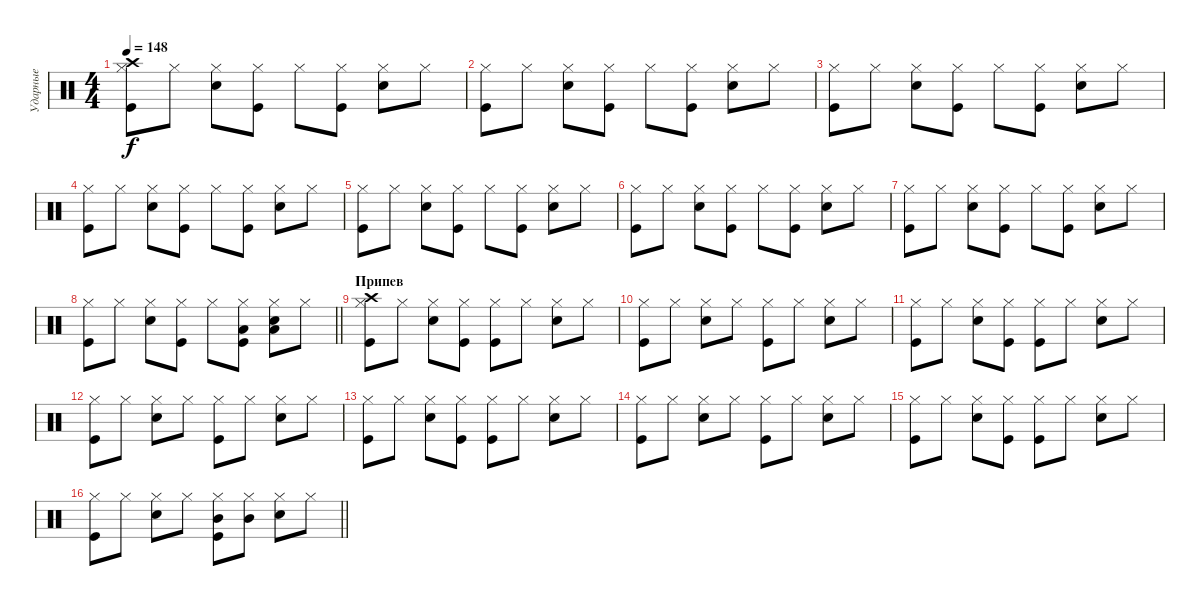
\track ("Ударные" "Ударные") {instrument percussion}
\staff {score}
\articulation defaults
\ts (4 4)
\tempo 148
\clef neutral
\ks c
("Kick (hit)" "Hi-Hat (closed)" "Crash high (hit)").8{dy f} "Hi-Hat (closed)".8 ("Snare (hit) 2" "Hi-Hat (closed)").8 ("Kick (hit)" "Hi-Hat (closed)").8 "Hi-Hat (closed)".8 ("Kick (hit)" "Hi-Hat (closed)").8 ("Snare (hit) 2" "Hi-Hat (closed)").8 "Hi-Hat (closed)".8 |
("Kick (hit)" "Hi-Hat (closed)").8 "Hi-Hat (closed)".8 ("Snare (hit) 2" "Hi-Hat (closed)").8 ("Kick (hit)" "Hi-Hat (closed)").8 "Hi-Hat (closed)".8 ("Kick (hit)" "Hi-Hat (closed)").8 ("Snare (hit) 2" "Hi-Hat (closed)").8 "Hi-Hat (closed)".8 |
("Kick (hit)" "Hi-Hat (closed)").8 "Hi-Hat (closed)".8 ("Snare (hit) 2" "Hi-Hat (closed)").8 ("Kick (hit)" "Hi-Hat (closed)").8 "Hi-Hat (closed)".8 ("Kick (hit)" "Hi-Hat (closed)").8 ("Snare (hit) 2" "Hi-Hat (closed)").8 "Hi-Hat (closed)".8 |
("Kick (hit)" "Hi-Hat (closed)").8 "Hi-Hat (closed)".8 ("Snare (hit) 2" "Hi-Hat (closed)").8 ("Kick (hit)" "Hi-Hat (closed)").8 "Hi-Hat (closed)".8 ("Kick (hit)" "Hi-Hat (closed)").8 ("Snare (hit) 2" "Hi-Hat (closed)").8 "Hi-Hat (closed)".8 |
("Kick (hit)" "Hi-Hat (closed)").8 "Hi-Hat (closed)".8 ("Snare (hit) 2" "Hi-Hat (closed)").8 ("Kick (hit)" "Hi-Hat (closed)").8 "Hi-Hat (closed)".8 ("Kick (hit)" "Hi-Hat (closed)").8 ("Snare (hit) 2" "Hi-Hat (closed)").8 "Hi-Hat (closed)".8 |
("Kick (hit)" "Hi-Hat (closed)").8 "Hi-Hat (closed)".8 ("Snare (hit) 2" "Hi-Hat (closed)").8 ("Kick (hit)" "Hi-Hat (closed)").8 "Hi-Hat (closed)".8 ("Kick (hit)" "Hi-Hat (closed)").8 ("Snare (hit) 2" "Hi-Hat (closed)").8 "Hi-Hat (closed)".8 |
("Kick (hit)" "Hi-Hat (closed)").8 "Hi-Hat (closed)".8 ("Snare (hit) 2" "Hi-Hat (closed)").8 ("Kick (hit)" "Hi-Hat (closed)").8 "Hi-Hat (closed)".8 ("Kick (hit)" "Hi-Hat (closed)").8 ("Snare (hit) 2" "Hi-Hat (closed)").8 "Hi-Hat (closed)".8 |
\barLineRight lightlight
("Kick (hit)" "Hi-Hat (closed)").8 "Hi-Hat (closed)".8 ("Snare (hit) 2" "Hi-Hat (closed)").8 ("Kick (hit)" "Hi-Hat (closed)").8 "Hi-Hat (closed)".8 ("Kick (hit)" "Hi-Hat (closed)" "Low Floor Tom (hit)").8 ("Snare (hit) 2" "Hi-Hat (closed)" "Low Floor Tom (hit)").8 "Hi-Hat (closed)".8 |
\section ("" "Припев")
("Kick (hit)" "Hi-Hat (closed)" "Crash high (hit)").8 "Hi-Hat (closed)".8 ("Snare (hit) 2" "Hi-Hat (closed)").8 ("Kick (hit)" "Hi-Hat (closed)").8 ("Kick (hit)" "Hi-Hat (closed)").8 "Hi-Hat (closed)".8 ("Snare (hit) 2" "Hi-Hat (closed)").8 "Hi-Hat (closed)".8 |
("Kick (hit)" "Hi-Hat (closed)").8 "Hi-Hat (closed)".8 ("Snare (hit) 2" "Hi-Hat (closed)").8 "Hi-Hat (closed)".8 ("Kick (hit)" "Hi-Hat (closed)").8 "Hi-Hat (closed)".8 ("Snare (hit) 2" "Hi-Hat (closed)").8 "Hi-Hat (closed)".8 |
("Kick (hit)" "Hi-Hat (closed)").8 "Hi-Hat (closed)".8 ("Snare (hit) 2" "Hi-Hat (closed)").8 ("Kick (hit)" "Hi-Hat (closed)").8 ("Kick (hit)" "Hi-Hat (closed)").8 "Hi-Hat (closed)".8 ("Snare (hit) 2" "Hi-Hat (closed)").8 "Hi-Hat (closed)".8 |
("Kick (hit)" "Hi-Hat (closed)").8 "Hi-Hat (closed)".8 ("Snare (hit) 2" "Hi-Hat (closed)").8 "Hi-Hat (closed)".8 ("Kick (hit)" "Hi-Hat (closed)").8 "Hi-Hat (closed)".8 ("Snare (hit) 2" "Hi-Hat (closed)").8 "Hi-Hat (closed)".8 |
("Kick (hit)" "Hi-Hat (closed)").8 "Hi-Hat (closed)".8 ("Snare (hit) 2" "Hi-Hat (closed)").8 ("Kick (hit)" "Hi-Hat (closed)").8 ("Kick (hit)" "Hi-Hat (closed)").8 "Hi-Hat (closed)".8 ("Snare (hit) 2" "Hi-Hat (closed)").8 "Hi-Hat (closed)".8 |
("Kick (hit)" "Hi-Hat (closed)").8 "Hi-Hat (closed)".8 ("Snare (hit) 2" "Hi-Hat (closed)").8 "Hi-Hat (closed)".8 ("Kick (hit)" "Hi-Hat (closed)").8 "Hi-Hat (closed)".8 ("Snare (hit) 2" "Hi-Hat (closed)").8 "Hi-Hat (closed)".8 |
("Kick (hit)" "Hi-Hat (closed)").8 "Hi-Hat (closed)".8 ("Snare (hit) 2" "Hi-Hat (closed)").8 ("Kick (hit)" "Hi-Hat (closed)").8 ("Kick (hit)" "Hi-Hat (closed)").8 "Hi-Hat (closed)".8 ("Snare (hit) 2" "Hi-Hat (closed)").8 "Hi-Hat (closed)".8 |
\barLineRight lightlight
("Kick (hit)" "Hi-Hat (closed)").8 "Hi-Hat (closed)".8 ("Snare (hit) 2" "Hi-Hat (closed)").8 "Hi-Hat (closed)".8 ("Kick (hit)" "Hi-Hat (closed)" "Mid Tom (hit)").8 ("Hi-Hat (closed)" "Mid Tom (hit)").8 ("Snare (hit) 2" "Hi-Hat (closed)").8 "Hi-Hat (closed)".8
